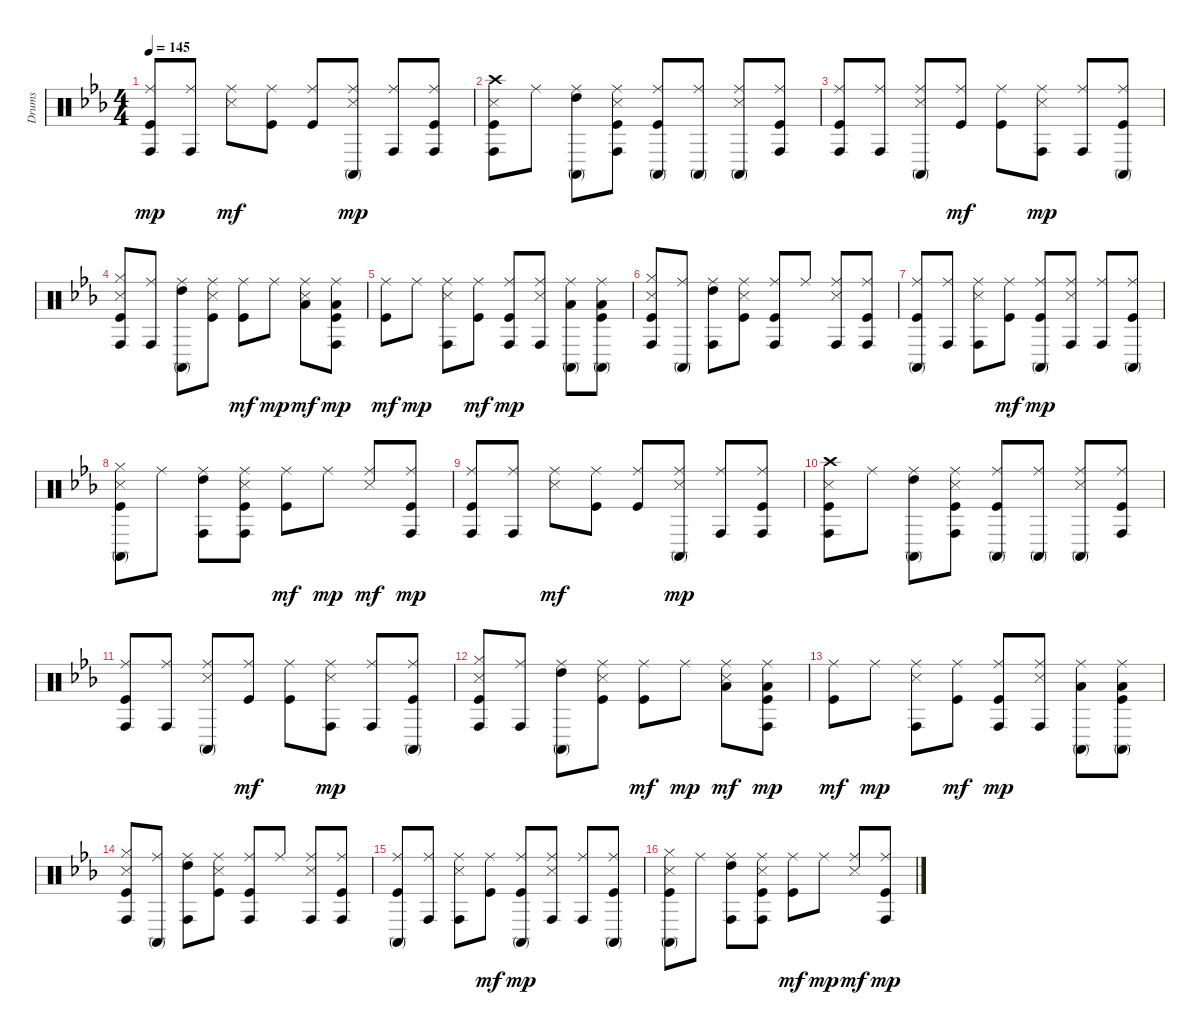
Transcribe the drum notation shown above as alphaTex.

\track ("Drums" "Drums") {instrument percussion}
\staff {score}
\articulation defaults
\ts (4 4)
\tempo 145
\clef neutral
\ks eb
("Kick (hit)" "Ride (middle)" "Conga high (hit)").8{dy mp} ("Ride (middle)" "Conga high (hit)").8 ("Snare (side stick) 3" "Ride (middle)").8{dy mf} ("Kick (hit)" "Ride (middle)").8 ("Kick (hit)" "Ride (middle)").8 ("Snare (side stick) 3" "Ride (middle)" "Conga high (mute)").8{dy mp} ("Ride (middle)" "Conga high (hit)").8 ("Kick (hit)" "Ride (middle)" "Conga high (hit)").8 |
("Kick (hit)" "Snare (side stick) 3" "Crash high (hit)" "Conga high (hit)").8 "Ride (middle)".8 ("High Tom (hit)" "Ride (middle)" "Conga high (mute)").8 ("Kick (hit)" "Snare (side stick) 3" "Ride (middle)" "Conga high (hit)").8 ("Kick (hit)" "Ride (middle)" "Conga high (mute)").8 ("Ride (middle)" "Conga high (mute)").8 ("Snare (side stick) 3" "Ride (middle)" "Conga high (mute)").8 ("Kick (hit)" "Ride (middle)" "Conga high (hit)").8 |
("Kick (hit)" "Ride (middle)" "Conga high (hit)").8 ("Ride (middle)" "Conga high (hit)").8 ("Snare (side stick) 3" "Ride (middle)" "Conga high (mute)").8 ("Kick (hit)" "Ride (middle)").8{dy mf} ("Kick (hit)" "Ride (middle)").8 ("Snare (side stick) 3" "Ride (middle)" "Conga high (hit)").8{dy mp} ("Ride (middle)" "Conga high (hit)").8 ("Kick (hit)" "Ride (middle)" "Conga high (mute)").8 |
("Kick (hit)" "Snare (side stick) 3" "Hi-Hat (closed)" "Conga high (hit)").8 ("Ride (middle)" "Conga high (hit)").8 ("High Tom (hit)" "Ride (middle)" "Conga high (mute)").8 ("Kick (hit)" "Snare (side stick) 3" "Ride (middle)").8 ("Kick (hit)" "Ride (middle)").8{dy mf} "Ride (middle)".8{dy mp} ("Snare (side stick) 3" "Low Tom (hit)" "Ride (middle)").8{dy mf} ("Kick (hit)" "Low Tom (hit)" "Ride (middle)" "Conga high (hit)").8{dy mp} |
("Kick (hit)" "Ride (middle)").8{dy mf} "Ride (middle)".8{dy mp} ("Snare (side stick) 3" "Ride (middle)" "Conga high (hit)").8 ("Kick (hit)" "Ride (middle)").8{dy mf} ("Kick (hit)" "Ride (middle)" "Conga high (hit)").8{dy mp} ("Snare (side stick) 3" "Ride (middle)" "Conga high (hit)").8 ("Low Tom (hit)" "Ride (middle)" "Conga high (mute)").8 ("Kick (hit)" "Low Tom (hit)" "Ride (middle)" "Conga high (mute)").8 |
("Kick (hit)" "Snare (side stick) 3" "Hi-Hat (closed)" "Conga high (hit)").8 ("Ride (middle)" "Conga high (mute)").8 ("High Tom (hit)" "Ride (middle)" "Conga high (hit)").8 ("Kick (hit)" "Snare (side stick) 3" "Ride (middle)").8 ("Kick (hit)" "Ride (middle)" "Conga high (hit)").8 "Ride (middle)".8 ("Snare (side stick) 3" "Ride (middle)" "Conga high (hit)").8 ("Kick (hit)" "Ride (middle)" "Conga high (hit)").8 |
("Kick (hit)" "Ride (middle)" "Conga high (mute)").8 ("Ride (middle)" "Conga high (hit)").8 ("Snare (side stick) 3" "Ride (middle)" "Conga high (hit)").8 ("Kick (hit)" "Ride (middle)").8{dy mf} ("Kick (hit)" "Ride (middle)" "Conga high (mute)").8{dy mp} ("Snare (side stick) 3" "Ride (middle)" "Conga high (hit)").8 ("Ride (middle)" "Conga high (hit)").8 ("Kick (hit)" "Ride (middle)" "Conga high (mute)").8 |
("Kick (hit)" "Snare (side stick) 3" "Hi-Hat (closed)" "Conga high (mute)").8 "Ride (middle)".8 ("High Tom (hit)" "Ride (middle)" "Conga high (hit)").8 ("Kick (hit)" "Snare (side stick) 3" "Ride (middle)" "Conga high (hit)").8 ("Kick (hit)" "Ride (middle)").8{dy mf} "Ride (middle)".8{dy mp} ("Snare (side stick) 3" "Ride (middle)").8{dy mf} ("Kick (hit)" "Ride (middle)" "Conga high (hit)").8{dy mp} |
("Kick (hit)" "Ride (middle)" "Conga high (hit)").8 ("Ride (middle)" "Conga high (hit)").8 ("Snare (side stick) 3" "Ride (middle)").8{dy mf} ("Kick (hit)" "Ride (middle)").8 ("Kick (hit)" "Ride (middle)").8 ("Snare (side stick) 3" "Ride (middle)" "Conga high (mute)").8{dy mp} ("Ride (middle)" "Conga high (hit)").8 ("Kick (hit)" "Ride (middle)" "Conga high (hit)").8 |
("Kick (hit)" "Snare (side stick) 3" "Crash high (hit)" "Conga high (hit)").8 "Ride (middle)".8 ("High Tom (hit)" "Ride (middle)" "Conga high (mute)").8 ("Kick (hit)" "Snare (side stick) 3" "Ride (middle)" "Conga high (hit)").8 ("Kick (hit)" "Ride (middle)" "Conga high (mute)").8 ("Ride (middle)" "Conga high (mute)").8 ("Snare (side stick) 3" "Ride (middle)" "Conga high (mute)").8 ("Kick (hit)" "Ride (middle)" "Conga high (hit)").8 |
("Kick (hit)" "Ride (middle)" "Conga high (hit)").8 ("Ride (middle)" "Conga high (hit)").8 ("Snare (side stick) 3" "Ride (middle)" "Conga high (mute)").8 ("Kick (hit)" "Ride (middle)").8{dy mf} ("Kick (hit)" "Ride (middle)").8 ("Snare (side stick) 3" "Ride (middle)" "Conga high (hit)").8{dy mp} ("Ride (middle)" "Conga high (hit)").8 ("Kick (hit)" "Ride (middle)" "Conga high (mute)").8 |
("Kick (hit)" "Snare (side stick) 3" "Hi-Hat (closed)" "Conga high (hit)").8 ("Ride (middle)" "Conga high (hit)").8 ("High Tom (hit)" "Ride (middle)" "Conga high (mute)").8 ("Kick (hit)" "Snare (side stick) 3" "Ride (middle)").8 ("Kick (hit)" "Ride (middle)").8{dy mf} "Ride (middle)".8{dy mp} ("Snare (side stick) 3" "Low Tom (hit)" "Ride (middle)").8{dy mf} ("Kick (hit)" "Low Tom (hit)" "Ride (middle)" "Conga high (hit)").8{dy mp} |
("Kick (hit)" "Ride (middle)").8{dy mf} "Ride (middle)".8{dy mp} ("Snare (side stick) 3" "Ride (middle)" "Conga high (hit)").8 ("Kick (hit)" "Ride (middle)").8{dy mf} ("Kick (hit)" "Ride (middle)" "Conga high (hit)").8{dy mp} ("Snare (side stick) 3" "Ride (middle)" "Conga high (hit)").8 ("Low Tom (hit)" "Ride (middle)" "Conga high (mute)").8 ("Kick (hit)" "Low Tom (hit)" "Ride (middle)" "Conga high (mute)").8 |
("Kick (hit)" "Snare (side stick) 3" "Hi-Hat (closed)" "Conga high (hit)").8 ("Ride (middle)" "Conga high (mute)").8 ("High Tom (hit)" "Ride (middle)" "Conga high (hit)").8 ("Kick (hit)" "Snare (side stick) 3" "Ride (middle)").8 ("Kick (hit)" "Ride (middle)" "Conga high (hit)").8 "Ride (middle)".8 ("Snare (side stick) 3" "Ride (middle)" "Conga high (hit)").8 ("Kick (hit)" "Ride (middle)" "Conga high (hit)").8 |
("Kick (hit)" "Ride (middle)" "Conga high (mute)").8 ("Ride (middle)" "Conga high (hit)").8 ("Snare (side stick) 3" "Ride (middle)" "Conga high (hit)").8 ("Kick (hit)" "Ride (middle)").8{dy mf} ("Kick (hit)" "Ride (middle)" "Conga high (mute)").8{dy mp} ("Snare (side stick) 3" "Ride (middle)" "Conga high (hit)").8 ("Ride (middle)" "Conga high (hit)").8 ("Kick (hit)" "Ride (middle)" "Conga high (mute)").8 |
("Kick (hit)" "Snare (side stick) 3" "Hi-Hat (closed)" "Conga high (mute)").8 "Ride (middle)".8 ("High Tom (hit)" "Ride (middle)" "Conga high (hit)").8 ("Kick (hit)" "Snare (side stick) 3" "Ride (middle)" "Conga high (hit)").8 ("Kick (hit)" "Ride (middle)").8{dy mf} "Ride (middle)".8{dy mp} ("Snare (side stick) 3" "Ride (middle)").8{dy mf} ("Kick (hit)" "Ride (middle)" "Conga high (hit)").8{dy mp}
